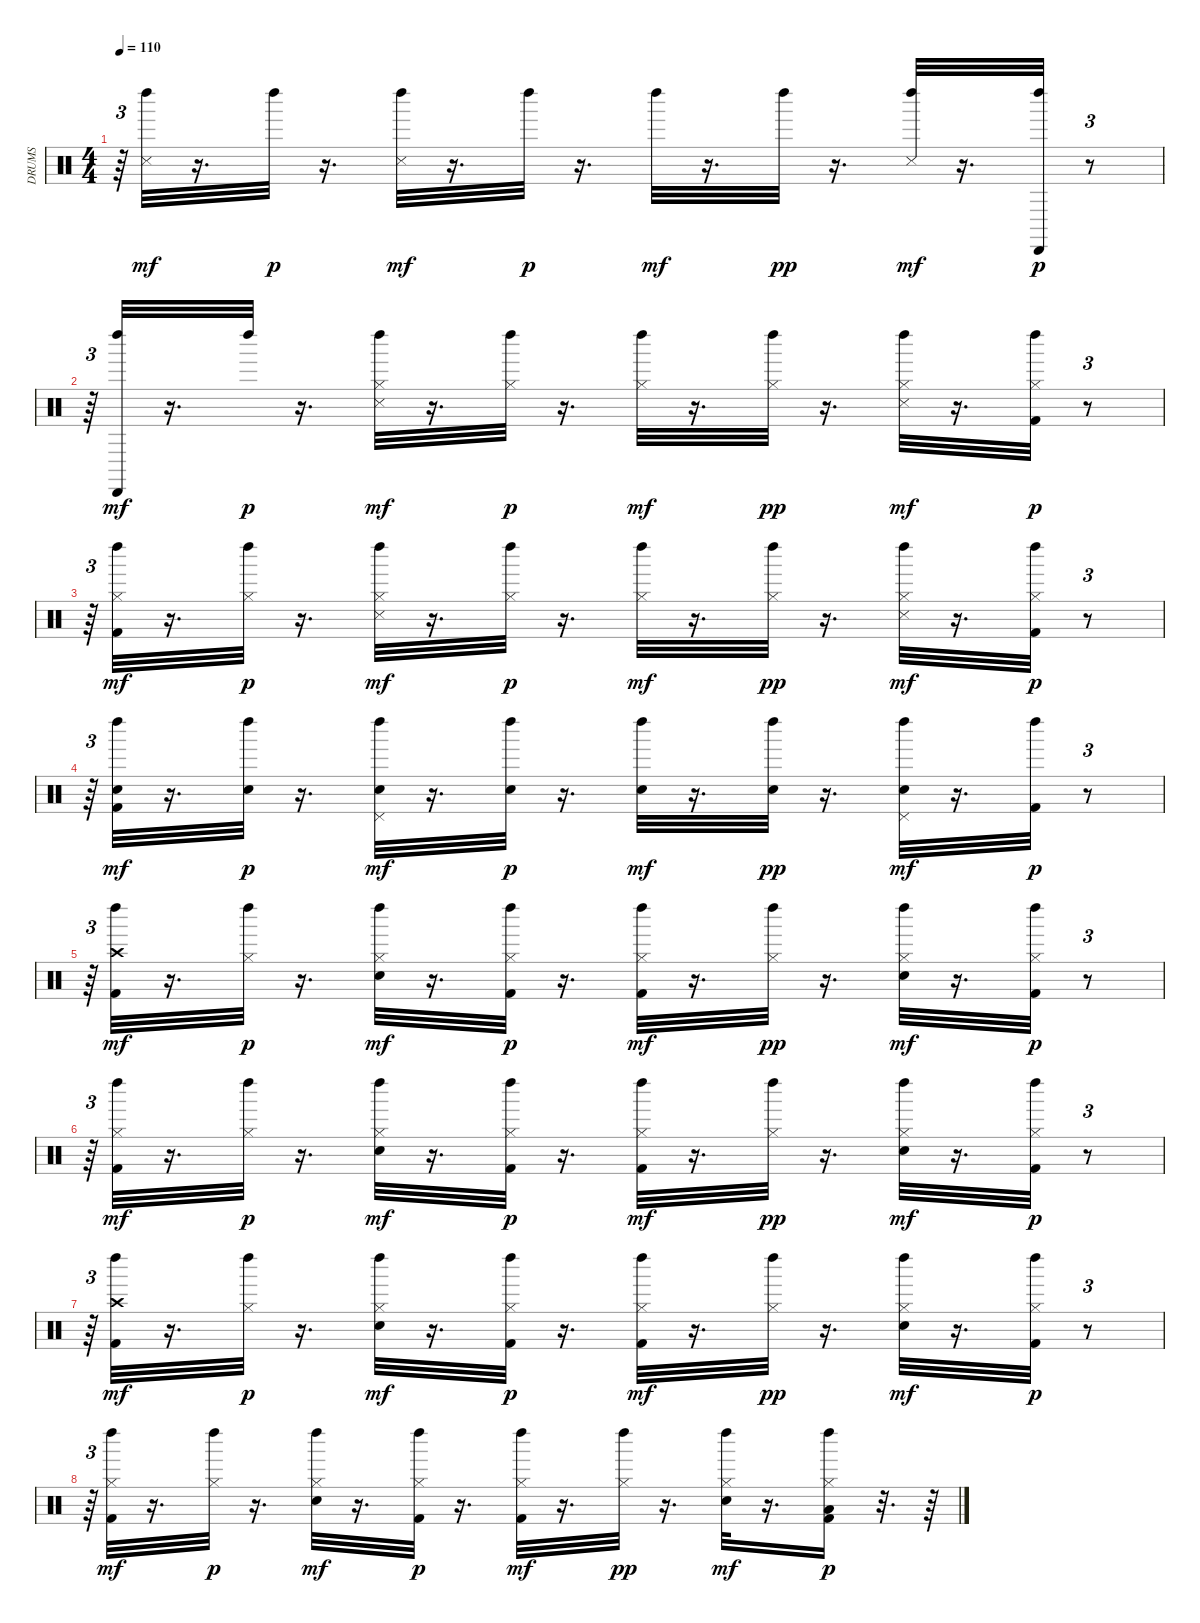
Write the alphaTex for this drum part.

\track ("DRUMS" "DRUMS") {instrument percussion}
\staff {score}
\articulation defaults
\ts (4 4)
\tempo 110
\clef neutral
\ks c
r.64{tu (3 2) dy mf} ("Snare (side stick) 3" "Left Maraca (hit)").32 r.16{d} "Left Maraca (hit)".32{dy p} r.16{d} ("Snare (side stick) 3" "Left Maraca (hit)").32{dy mf} r.16{d} "Left Maraca (hit)".32{dy p} r.16{d} "Left Maraca (hit)".32{dy mf} r.16{d} "Left Maraca (hit)".32{dy pp} r.16{d} ("Snare (side stick) 3" "Left Maraca (hit)").32{dy mf} r.16{d} ("Cabasa (hit)" "Left Maraca (hit)").32{dy p} r.8{tu (3 2)} |
r.64{tu (3 2)} ("Cabasa (hit)" "Left Maraca (hit)").32{dy mf} r.16{d} "Left Maraca (hit)".32{dy p} r.16{d} ("Snare (side stick) 3" "Hi-Hat (closed)" "Left Maraca (hit)").32{dy mf} r.16{d} ("Hi-Hat (closed)" "Left Maraca (hit)").32{dy p} r.16{d} ("Hi-Hat (closed)" "Left Maraca (hit)").32{dy mf} r.16{d} ("Hi-Hat (closed)" "Left Maraca (hit)").32{dy pp} r.16{d} ("Snare (side stick) 3" "Hi-Hat (closed)" "Left Maraca (hit)").32{dy mf} r.16{d} ("Kick (hit) 2" "Hi-Hat (closed)" "Left Maraca (hit)").32{dy p} r.8{tu (3 2)} |
r.64{tu (3 2)} ("Kick (hit) 2" "Hi-Hat (closed)" "Left Maraca (hit)").32{dy mf} r.16{d} ("Hi-Hat (closed)" "Left Maraca (hit)").32{dy p} r.16{d} ("Snare (side stick) 3" "Hi-Hat (closed)" "Left Maraca (hit)").32{dy mf} r.16{d} ("Hi-Hat (closed)" "Left Maraca (hit)").32{dy p} r.16{d} ("Hi-Hat (closed)" "Left Maraca (hit)").32{dy mf} r.16{d} ("Hi-Hat (closed)" "Left Maraca (hit)").32{dy pp} r.16{d} ("Snare (side stick) 3" "Hi-Hat (closed)" "Left Maraca (hit)").32{dy mf} r.16{d} ("Kick (hit) 2" "Hi-Hat (closed)" "Left Maraca (hit)").32{dy p} r.8{tu (3 2)} |
r.64{tu (3 2)} ("Kick (hit) 2" "Snare (hit) 2" "Left Maraca (hit)").32{dy mf} r.16{d} ("Snare (hit) 2" "Left Maraca (hit)").32{dy p} r.16{d} ("Snare (hit) 2" "Pedal Hi-Hat (hit)" "Left Maraca (hit)").32{dy mf} r.16{d} ("Snare (hit) 2" "Left Maraca (hit)").32{dy p} r.16{d} ("Snare (hit) 2" "Left Maraca (hit)").32{dy mf} r.16{d} ("Snare (hit) 2" "Left Maraca (hit)").32{dy pp} r.16{d} ("Snare (hit) 2" "Pedal Hi-Hat (hit)" "Left Maraca (hit)").32{dy mf} r.16{d} ("Kick (hit) 2" "Left Maraca (hit)").32{dy p} r.8{tu (3 2)} |
r.64{tu (3 2)} ("Kick (hit) 2" "Crash high (hit)" "Left Maraca (hit)").32{dy mf} r.16{d} ("Hi-Hat (closed)" "Left Maraca (hit)").32{dy p} r.16{d} ("Snare (hit) 2" "Hi-Hat (closed)" "Left Maraca (hit)").32{dy mf} r.16{d} ("Kick (hit) 2" "Hi-Hat (closed)" "Left Maraca (hit)").32{dy p} r.16{d} ("Kick (hit) 2" "Hi-Hat (closed)" "Left Maraca (hit)").32{dy mf} r.16{d} ("Hi-Hat (closed)" "Left Maraca (hit)").32{dy pp} r.16{d} ("Snare (hit) 2" "Hi-Hat (closed)" "Left Maraca (hit)").32{dy mf} r.16{d} ("Kick (hit) 2" "Hi-Hat (closed)" "Left Maraca (hit)").32{dy p} r.8{tu (3 2)} |
r.64{tu (3 2)} ("Kick (hit) 2" "Hi-Hat (closed)" "Left Maraca (hit)").32{dy mf} r.16{d} ("Hi-Hat (closed)" "Left Maraca (hit)").32{dy p} r.16{d} ("Snare (hit) 2" "Hi-Hat (closed)" "Left Maraca (hit)").32{dy mf} r.16{d} ("Kick (hit) 2" "Hi-Hat (closed)" "Left Maraca (hit)").32{dy p} r.16{d} ("Kick (hit) 2" "Hi-Hat (closed)" "Left Maraca (hit)").32{dy mf} r.16{d} ("Hi-Hat (closed)" "Left Maraca (hit)").32{dy pp} r.16{d} ("Snare (hit) 2" "Hi-Hat (closed)" "Left Maraca (hit)").32{dy mf} r.16{d} ("Kick (hit) 2" "Hi-Hat (closed)" "Left Maraca (hit)").32{dy p} r.8{tu (3 2)} |
r.64{tu (3 2)} ("Kick (hit) 2" "Crash high (hit)" "Left Maraca (hit)").32{dy mf} r.16{d} ("Hi-Hat (closed)" "Left Maraca (hit)").32{dy p} r.16{d} ("Snare (hit) 2" "Hi-Hat (closed)" "Left Maraca (hit)").32{dy mf} r.16{d} ("Kick (hit) 2" "Hi-Hat (closed)" "Left Maraca (hit)").32{dy p} r.16{d} ("Kick (hit) 2" "Hi-Hat (closed)" "Left Maraca (hit)").32{dy mf} r.16{d} ("Hi-Hat (closed)" "Left Maraca (hit)").32{dy pp} r.16{d} ("Snare (hit) 2" "Hi-Hat (closed)" "Left Maraca (hit)").32{dy mf} r.16{d} ("Kick (hit) 2" "Hi-Hat (closed)" "Left Maraca (hit)").32{dy p} r.8{tu (3 2)} |
r.64{tu (3 2)} ("Kick (hit) 2" "Hi-Hat (closed)" "Left Maraca (hit)").32{dy mf} r.16{d} ("Hi-Hat (closed)" "Left Maraca (hit)").32{dy p} r.16{d} ("Snare (hit) 2" "Hi-Hat (closed)" "Left Maraca (hit)").32{dy mf} r.16{d} ("Kick (hit) 2" "Hi-Hat (closed)" "Left Maraca (hit)").32{dy p} r.16{d} ("Kick (hit) 2" "Hi-Hat (closed)" "Left Maraca (hit)").32{dy mf} r.16{d} ("Hi-Hat (closed)" "Left Maraca (hit)").32{dy pp} r.16{d} ("Snare (hit) 2" "Hi-Hat (closed)" "Left Maraca (hit)").32{dy mf} r.16{d} ("Kick (hit) 2" "Hi-Hat (closed)" "Low Tom (hit)" "Left Maraca (hit)").16{dy p} r.32{d} r.64
